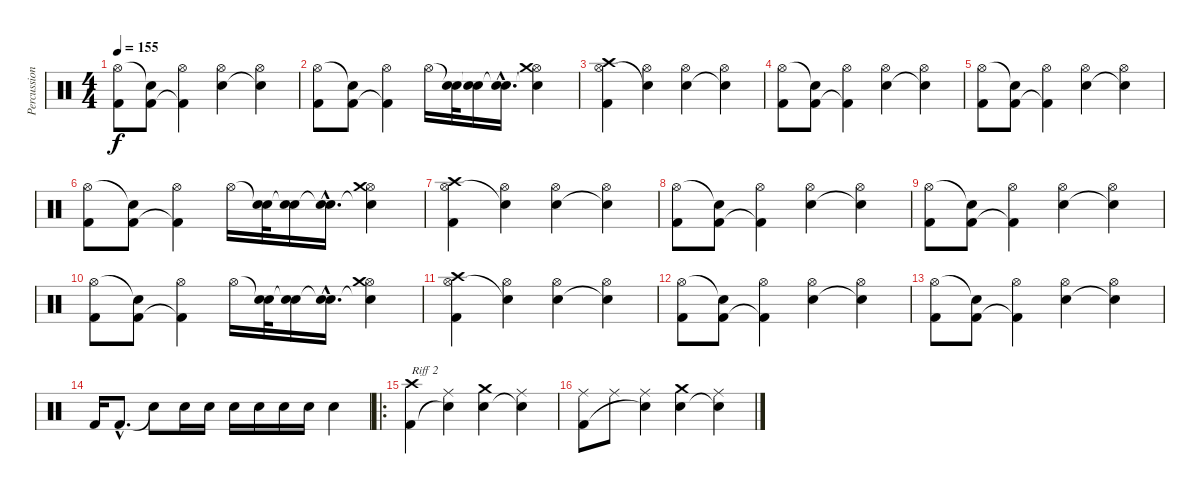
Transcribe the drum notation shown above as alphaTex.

\track ("Percussion" "Percussion") {instrument percussion}
\staff {score}
\articulation defaults
\ts (4 4)
\tempo 155
\clef neutral
\ks c
("Hi-Hat (open)" "Kick (hit) 2").8{dy f} ("Snare (hit)"{t} "Kick (hit) 2").8 ("Hi-Hat (open)" "Kick (hit) 2"{t}).4 ("Hi-Hat (open)" "Electric Snare (hit)").4 ("Hi-Hat (open)" "Snare (hit)"{t}).4 |
("Hi-Hat (open)" "Kick (hit) 2").8 ("Snare (hit)"{t} "Kick (hit) 2").8 ("Hi-Hat (open)" "Kick (hit) 2"{t}).4 "Hi-Hat (open)".16 ("Snare (hit)"{t} "Electric Snare (hit)").32 ("Snare (hit)"{t} "Electric Snare (hit)").16 ("Snare (hit)"{hac t} "Electric Snare (hit)"{hac}).16{d} ("Hi-Hat (open)" "Electric Snare (hit)"{t} "Crash medium (hit)").4 |
("Crash high (hit)" "Hi-Hat (open)" "Kick (hit) 2").4 ("Hi-Hat (open)" "Snare (hit)"{t}).4 ("Hi-Hat (open)" "Electric Snare (hit)").4 ("Hi-Hat (open)" "Snare (hit)"{t}).4 |
("Hi-Hat (open)" "Kick (hit) 2").8 ("Snare (hit)"{t} "Kick (hit) 2").8 ("Hi-Hat (open)" "Kick (hit) 2"{t}).4 ("Hi-Hat (open)" "Electric Snare (hit)").4 ("Hi-Hat (open)" "Snare (hit)"{t}).4 |
("Hi-Hat (open)" "Kick (hit) 2").8 ("Snare (hit)"{t} "Kick (hit) 2").8 ("Hi-Hat (open)" "Kick (hit) 2"{t}).4 ("Hi-Hat (open)" "Electric Snare (hit)").4 ("Hi-Hat (open)" "Snare (hit)"{t}).4 |
("Hi-Hat (open)" "Kick (hit) 2").8 ("Snare (hit)"{t} "Kick (hit) 2").8 ("Hi-Hat (open)" "Kick (hit) 2"{t}).4 "Hi-Hat (open)".16 ("Snare (hit)"{t} "Electric Snare (hit)").32 ("Snare (hit)"{t} "Electric Snare (hit)").16 ("Snare (hit)"{hac t} "Electric Snare (hit)"{hac}).16{d} ("Hi-Hat (open)" "Electric Snare (hit)"{t} "Crash medium (hit)").4 |
("Crash high (hit)" "Hi-Hat (open)" "Kick (hit) 2").4 ("Hi-Hat (open)" "Snare (hit)"{t}).4 ("Hi-Hat (open)" "Electric Snare (hit)").4 ("Hi-Hat (open)" "Snare (hit)"{t}).4 |
("Hi-Hat (open)" "Kick (hit) 2").8 ("Snare (hit)"{t} "Kick (hit) 2").8 ("Hi-Hat (open)" "Kick (hit) 2"{t}).4 ("Hi-Hat (open)" "Electric Snare (hit)").4 ("Hi-Hat (open)" "Snare (hit)"{t}).4 |
("Hi-Hat (open)" "Kick (hit) 2").8 ("Snare (hit)"{t} "Kick (hit) 2").8 ("Hi-Hat (open)" "Kick (hit) 2"{t}).4 ("Hi-Hat (open)" "Electric Snare (hit)").4 ("Hi-Hat (open)" "Snare (hit)"{t}).4 |
("Hi-Hat (open)" "Kick (hit) 2").8 ("Snare (hit)"{t} "Kick (hit) 2").8 ("Hi-Hat (open)" "Kick (hit) 2"{t}).4 "Hi-Hat (open)".16 ("Snare (hit)"{t} "Electric Snare (hit)").32 ("Snare (hit)"{t} "Electric Snare (hit)").16 ("Snare (hit)"{hac t} "Electric Snare (hit)"{hac}).16{d} ("Hi-Hat (open)" "Electric Snare (hit)"{t} "Crash medium (hit)").4 |
("Crash high (hit)" "Hi-Hat (open)" "Kick (hit) 2").4 ("Hi-Hat (open)" "Snare (hit)"{t}).4 ("Hi-Hat (open)" "Electric Snare (hit)").4 ("Hi-Hat (open)" "Snare (hit)"{t}).4 |
("Hi-Hat (open)" "Kick (hit) 2").8 ("Snare (hit)"{t} "Kick (hit) 2").8 ("Hi-Hat (open)" "Kick (hit) 2"{t}).4 ("Hi-Hat (open)" "Electric Snare (hit)").4 ("Hi-Hat (open)" "Snare (hit)"{t}).4 |
("Hi-Hat (open)" "Kick (hit) 2").8 ("Snare (hit)"{t} "Kick (hit) 2").8 ("Hi-Hat (open)" "Kick (hit) 2"{t}).4 ("Hi-Hat (open)" "Electric Snare (hit)").4 ("Hi-Hat (open)" "Snare (hit)"{t}).4 |
"Kick (hit) 2".16 "Kick (hit) 2"{hac}.8{d} "Snare (hit)"{t}.8{volume 0} "Electric Snare (hit)".16{volume 16} "Electric Snare (hit)".16 "Electric Snare (hit)".16 "Electric Snare (hit)".16 "Electric Snare (hit)".16 "Electric Snare (hit)".16 "Electric Snare (hit)".4 |
\ro
("Crash high (hit)" "Kick (hit) 2").4{txt "Riff 2"} ("Ride (middle)" "Snare (hit)"{t}).4 ("Crash medium (hit)" "Electric Snare (hit)").4 ("Ride (middle)" "Snare (hit)"{t}).4 |
("Ride (middle)" "Kick (hit) 2").8 "Ride (middle)".8 ("Ride (middle)" "Snare (hit)"{t}).4 ("Crash medium (hit)" "Electric Snare (hit)").4 ("Ride (middle)" "Snare (hit)"{t}).4
